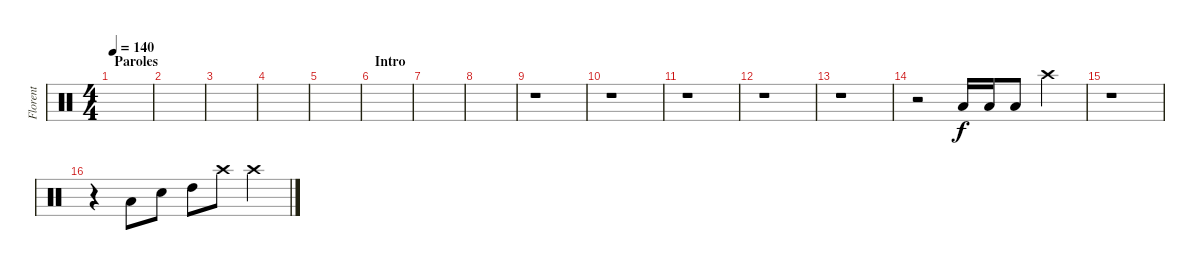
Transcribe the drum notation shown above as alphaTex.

\track ("Florent" "Florent") {instrument percussion}
\staff {score}
\articulation defaults
\ts (4 4)
\section ("" "Paroles")
\tempo 140
\clef neutral
\ks c
|
|
|
|
|
\section ("" "Intro")
|
|
|
r.1 |
r.1 |
r.1 |
r.1 |
r.1 |
r.2 "Low Tom (hit)".16 "Low Tom (hit)".16 "Low Tom (hit)".8 "Crash high (hit)".4 |
r.1 |
r.4 "Low Tom (hit)".8 "Snare (hit) 2".8 "High Tom (hit)".8 "Crash high (hit)".8 "Crash high (hit)".4
